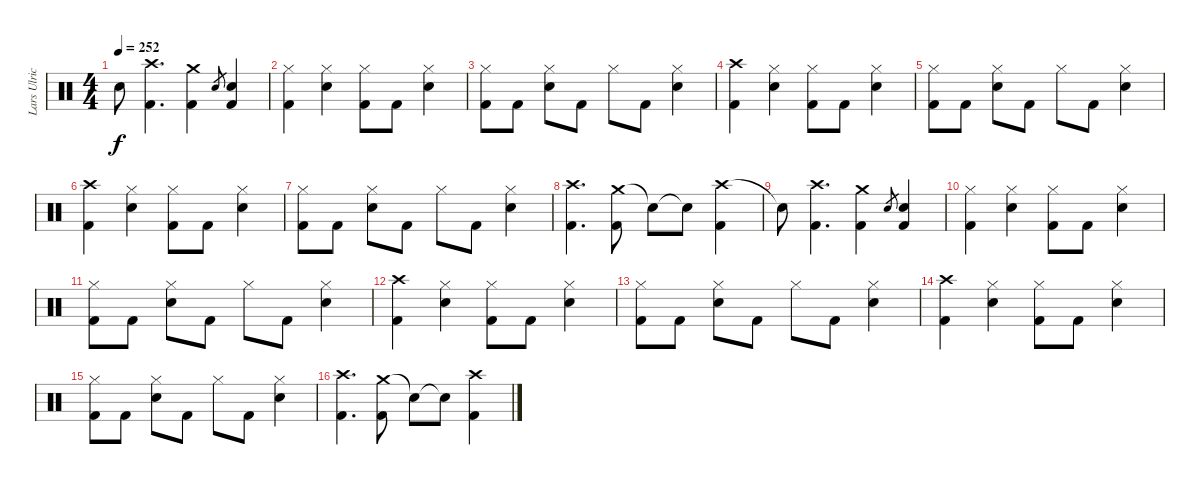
\track ("Lars Ulrich (Drums)" "Lars Ulric") {instrument percussion}
\staff {score}
\articulation defaults
\ts (4 4)
\tempo 252
\clef neutral
\ks c "Snare (hit)"{t}.8{dy f}
("Crash high (hit)" "Kick (hit) 2").4{d} ("Crash medium (hit)" "Kick (hit) 2").4 "Electric Snare (hit)".8{gr} ("Electric Snare (hit)" "Kick (hit) 2").4 |
("Hi-Hat (closed)" "Kick (hit) 2").4 ("Hi-Hat (closed)" "Electric Snare (hit)").4 ("Hi-Hat (closed)" "Kick (hit) 2").8 "Kick (hit) 2".8 ("Hi-Hat (closed)" "Electric Snare (hit)").4 |
("Hi-Hat (closed)" "Kick (hit) 2").8 "Kick (hit) 2".8 ("Hi-Hat (closed)" "Electric Snare (hit)").8 "Kick (hit) 2".8 "Hi-Hat (closed)".8 "Kick (hit) 2".8 ("Hi-Hat (closed)" "Electric Snare (hit)").4 |
("Crash high (hit)" "Kick (hit) 2").4 ("Hi-Hat (closed)" "Electric Snare (hit)").4 ("Hi-Hat (closed)" "Kick (hit) 2").8 "Kick (hit) 2".8 ("Hi-Hat (closed)" "Electric Snare (hit)").4 |
("Hi-Hat (closed)" "Kick (hit) 2").8 "Kick (hit) 2".8 ("Hi-Hat (closed)" "Electric Snare (hit)").8 "Kick (hit) 2".8 "Hi-Hat (closed)".8 "Kick (hit) 2".8 ("Hi-Hat (closed)" "Electric Snare (hit)").4 |
("Crash high (hit)" "Kick (hit) 2").4 ("Hi-Hat (closed)" "Electric Snare (hit)").4 ("Hi-Hat (closed)" "Kick (hit) 2").8 "Kick (hit) 2".8 ("Hi-Hat (closed)" "Electric Snare (hit)").4 |
("Hi-Hat (closed)" "Kick (hit) 2").8 "Kick (hit) 2".8 ("Hi-Hat (closed)" "Electric Snare (hit)").8 "Kick (hit) 2".8 "Hi-Hat (closed)".8 "Kick (hit) 2".8 ("Hi-Hat (closed)" "Electric Snare (hit)").4 |
("Crash high (hit)" "Kick (hit) 2").4{d} ("Crash medium (hit)" "Kick (hit) 2").8 "Snare (hit)"{t}.8 "Snare (hit)"{t}.8 ("Crash high (hit)" "Kick (hit) 2").4 |
"Snare (hit)"{t}.8 ("Crash high (hit)" "Kick (hit) 2").4{d} ("Crash medium (hit)" "Kick (hit) 2").4 "Electric Snare (hit)".8{gr} ("Electric Snare (hit)" "Kick (hit) 2").4 |
("Hi-Hat (closed)" "Kick (hit) 2").4 ("Hi-Hat (closed)" "Electric Snare (hit)").4 ("Hi-Hat (closed)" "Kick (hit) 2").8 "Kick (hit) 2".8 ("Hi-Hat (closed)" "Electric Snare (hit)").4 |
("Hi-Hat (closed)" "Kick (hit) 2").8 "Kick (hit) 2".8 ("Hi-Hat (closed)" "Electric Snare (hit)").8 "Kick (hit) 2".8 "Hi-Hat (closed)".8 "Kick (hit) 2".8 ("Hi-Hat (closed)" "Electric Snare (hit)").4 |
("Crash high (hit)" "Kick (hit) 2").4 ("Hi-Hat (closed)" "Electric Snare (hit)").4 ("Hi-Hat (closed)" "Kick (hit) 2").8 "Kick (hit) 2".8 ("Hi-Hat (closed)" "Electric Snare (hit)").4 |
("Hi-Hat (closed)" "Kick (hit) 2").8 "Kick (hit) 2".8 ("Hi-Hat (closed)" "Electric Snare (hit)").8 "Kick (hit) 2".8 "Hi-Hat (closed)".8 "Kick (hit) 2".8 ("Hi-Hat (closed)" "Electric Snare (hit)").4 |
("Crash high (hit)" "Kick (hit) 2").4 ("Hi-Hat (closed)" "Electric Snare (hit)").4 ("Hi-Hat (closed)" "Kick (hit) 2").8 "Kick (hit) 2".8 ("Hi-Hat (closed)" "Electric Snare (hit)").4 |
("Hi-Hat (closed)" "Kick (hit) 2").8 "Kick (hit) 2".8 ("Hi-Hat (closed)" "Electric Snare (hit)").8 "Kick (hit) 2".8 "Hi-Hat (closed)".8 "Kick (hit) 2".8 ("Hi-Hat (closed)" "Electric Snare (hit)").4 |
("Crash high (hit)" "Kick (hit) 2").4{d} ("Crash medium (hit)" "Kick (hit) 2").8 "Snare (hit)"{t}.8 "Snare (hit)"{t}.8 ("Crash high (hit)" "Kick (hit) 2").4
